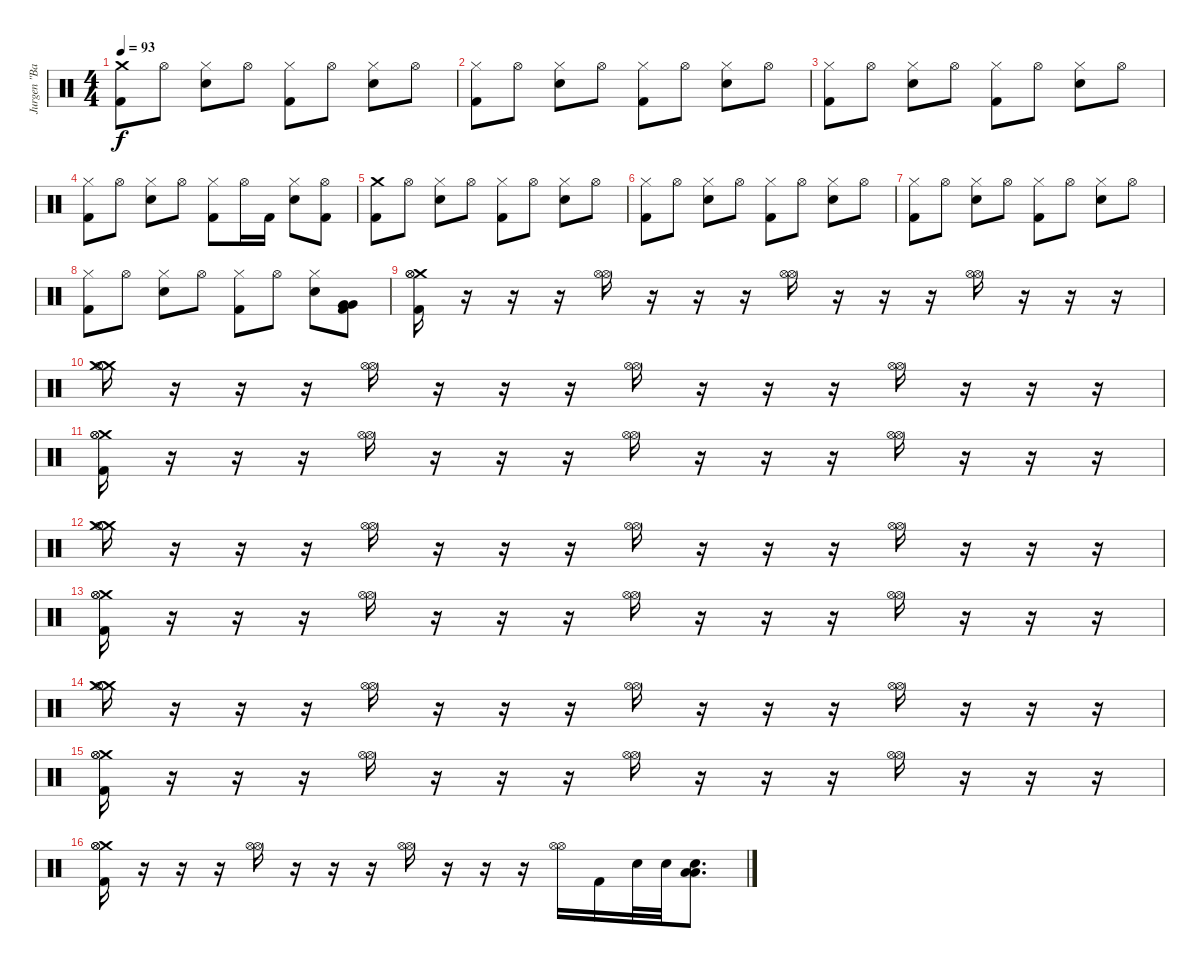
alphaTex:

\track ("Jurgen \"Bam Bam\" Wiehler" "Jurgen \"Ba") {instrument percussion}
\staff {score}
\articulation defaults
\ts (4 4)
\tempo 93
\clef neutral
\ks c
("Crash medium (hit)" "Kick (hit) 2").8{dy f} "Hi-Hat (open)".8 ("Hi-Hat (closed)" "Electric Snare (hit)").8 "Hi-Hat (open)".8 ("Hi-Hat (closed)" "Kick (hit) 2").8 "Hi-Hat (open)".8 ("Hi-Hat (closed)" "Electric Snare (hit)").8 "Hi-Hat (open)".8 |
("Hi-Hat (closed)" "Kick (hit) 2").8 "Hi-Hat (open)".8 ("Hi-Hat (closed)" "Electric Snare (hit)").8 "Hi-Hat (open)".8 ("Hi-Hat (closed)" "Kick (hit) 2").8 "Hi-Hat (open)".8 ("Hi-Hat (closed)" "Electric Snare (hit)").8 "Hi-Hat (open)".8 |
("Hi-Hat (closed)" "Kick (hit) 2").8 "Hi-Hat (open)".8 ("Hi-Hat (closed)" "Electric Snare (hit)").8 "Hi-Hat (open)".8 ("Hi-Hat (closed)" "Kick (hit) 2").8 "Hi-Hat (open)".8 ("Hi-Hat (closed)" "Electric Snare (hit)").8 "Hi-Hat (open)".8 |
("Hi-Hat (closed)" "Kick (hit) 2").8 "Hi-Hat (open)".8 ("Hi-Hat (closed)" "Electric Snare (hit)").8 "Hi-Hat (open)".8 ("Hi-Hat (closed)" "Kick (hit) 2").8 "Hi-Hat (open)".16 "Kick (hit) 2".16 ("Hi-Hat (closed)" "Electric Snare (hit)").8 ("Hi-Hat (open)" "Kick (hit) 2").8 |
("Crash medium (hit)" "Kick (hit) 2").8 "Hi-Hat (open)".8 ("Hi-Hat (closed)" "Electric Snare (hit)").8 "Hi-Hat (open)".8 ("Hi-Hat (closed)" "Kick (hit) 2").8 "Hi-Hat (open)".8 ("Hi-Hat (closed)" "Electric Snare (hit)").8 "Hi-Hat (open)".8 |
("Hi-Hat (closed)" "Kick (hit) 2").8 "Hi-Hat (open)".8 ("Hi-Hat (closed)" "Electric Snare (hit)").8 "Hi-Hat (open)".8 ("Hi-Hat (closed)" "Kick (hit) 2").8 "Hi-Hat (open)".8 ("Hi-Hat (closed)" "Electric Snare (hit)").8 "Hi-Hat (open)".8 |
("Hi-Hat (closed)" "Kick (hit) 2").8 "Hi-Hat (open)".8 ("Hi-Hat (closed)" "Electric Snare (hit)").8 "Hi-Hat (open)".8 ("Hi-Hat (closed)" "Kick (hit) 2").8 "Hi-Hat (open)".8 ("Hi-Hat (closed)" "Electric Snare (hit)").8 "Hi-Hat (open)".8 |
("Hi-Hat (closed)" "Kick (hit) 2").8 "Hi-Hat (open)".8 ("Hi-Hat (closed)" "Electric Snare (hit)").8 "Hi-Hat (open)".8 ("Hi-Hat (closed)" "Kick (hit) 2").8 "Hi-Hat (open)".8 ("Hi-Hat (closed)" "Electric Snare (hit)").8 ("Very Low Tom (hit)" "Very Low Tom (hit)" "Kick (hit) 2").8 |
("Crash medium (hit)" "Hi-Hat (open)" "Hi-Hat (open)" "Kick (hit) 2").16 r.16 r.16 r.16 ("Hi-Hat (open)" "Hi-Hat (open)").16 r.16 r.16 r.16 ("Hi-Hat (open)" "Hi-Hat (open)").16 r.16 r.16 r.16 ("Hi-Hat (open)" "Hi-Hat (open)").16 r.16 r.16 r.16 |
("Crash medium (hit)" "Crash medium (hit)" "Hi-Hat (open)").16 r.16 r.16 r.16 ("Hi-Hat (open)" "Hi-Hat (open)").16 r.16 r.16 r.16 ("Hi-Hat (open)" "Hi-Hat (open)").16 r.16 r.16 r.16 ("Hi-Hat (open)" "Hi-Hat (open)").16 r.16 r.16 r.16 |
("Crash medium (hit)" "Hi-Hat (open)" "Hi-Hat (open)" "Kick (hit) 2").16 r.16 r.16 r.16 ("Hi-Hat (open)" "Hi-Hat (open)").16 r.16 r.16 r.16 ("Hi-Hat (open)" "Hi-Hat (open)").16 r.16 r.16 r.16 ("Hi-Hat (open)" "Hi-Hat (open)").16 r.16 r.16 r.16 |
("Crash medium (hit)" "Crash medium (hit)" "Hi-Hat (open)").16 r.16 r.16 r.16 ("Hi-Hat (open)" "Hi-Hat (open)").16 r.16 r.16 r.16 ("Hi-Hat (open)" "Hi-Hat (open)").16 r.16 r.16 r.16 ("Hi-Hat (open)" "Hi-Hat (open)").16 r.16 r.16 r.16 |
("Crash medium (hit)" "Hi-Hat (open)" "Hi-Hat (open)" "Kick (hit) 2").16 r.16 r.16 r.16 ("Hi-Hat (open)" "Hi-Hat (open)").16 r.16 r.16 r.16 ("Hi-Hat (open)" "Hi-Hat (open)").16 r.16 r.16 r.16 ("Hi-Hat (open)" "Hi-Hat (open)").16 r.16 r.16 r.16 |
("Crash medium (hit)" "Crash medium (hit)" "Hi-Hat (open)").16 r.16 r.16 r.16 ("Hi-Hat (open)" "Hi-Hat (open)").16 r.16 r.16 r.16 ("Hi-Hat (open)" "Hi-Hat (open)").16 r.16 r.16 r.16 ("Hi-Hat (open)" "Hi-Hat (open)").16 r.16 r.16 r.16 |
("Crash medium (hit)" "Hi-Hat (open)" "Hi-Hat (open)" "Kick (hit) 2").16 r.16 r.16 r.16 ("Hi-Hat (open)" "Hi-Hat (open)").16 r.16 r.16 r.16 ("Hi-Hat (open)" "Hi-Hat (open)").16 r.16 r.16 r.16 ("Hi-Hat (open)" "Hi-Hat (open)").16 r.16 r.16 r.16 |
("Crash medium (hit)" "Hi-Hat (open)" "Hi-Hat (open)" "Kick (hit) 2").16 r.16 r.16 r.16 ("Hi-Hat (open)" "Hi-Hat (open)").16 r.16 r.16 r.16 ("Hi-Hat (open)" "Hi-Hat (open)").16 r.16 r.16 r.16 ("Hi-Hat (open)" "Hi-Hat (open)").16 "Kick (hit) 2".16 "Snare (hit) 2".32 "Snare (hit) 2".32 ("Low Floor Tom (hit)" "Low Floor Tom (hit)" "Snare (hit) 2").8{d}
